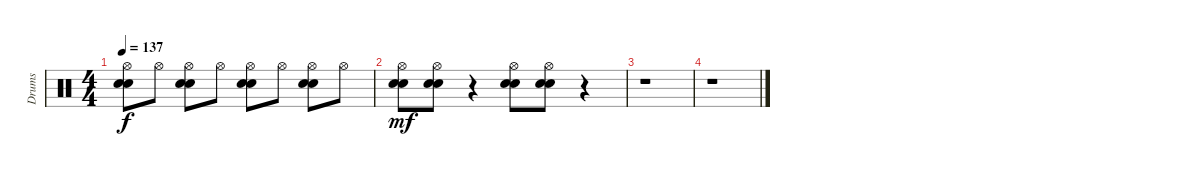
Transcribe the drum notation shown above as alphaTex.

\track ("Drums" "Drums") {instrument percussion}
\staff {score}
\articulation defaults
\ts (4 4)
\tempo 137
\clef neutral
\ks c
("Hi-Hat (open)" "Electric Snare (hit)" "Electric Snare (hit)").8{dy f} "Hi-Hat (open)".8 ("Hi-Hat (open)" "Electric Snare (hit)" "Electric Snare (hit)").8 "Hi-Hat (open)".8 ("Hi-Hat (open)" "Electric Snare (hit)" "Electric Snare (hit)").8 "Hi-Hat (open)".8 ("Hi-Hat (open)" "Electric Snare (hit)" "Electric Snare (hit)").8 "Hi-Hat (open)".8 |
("Hi-Hat (open)" "Electric Snare (hit)" "Electric Snare (hit)").8{dy mf} ("Hi-Hat (open)" "Electric Snare (hit)" "Electric Snare (hit)").8 r.4 ("Hi-Hat (open)" "Electric Snare (hit)" "Electric Snare (hit)").8 ("Hi-Hat (open)" "Electric Snare (hit)" "Electric Snare (hit)").8 r.4 |
r.1 |
r.1
